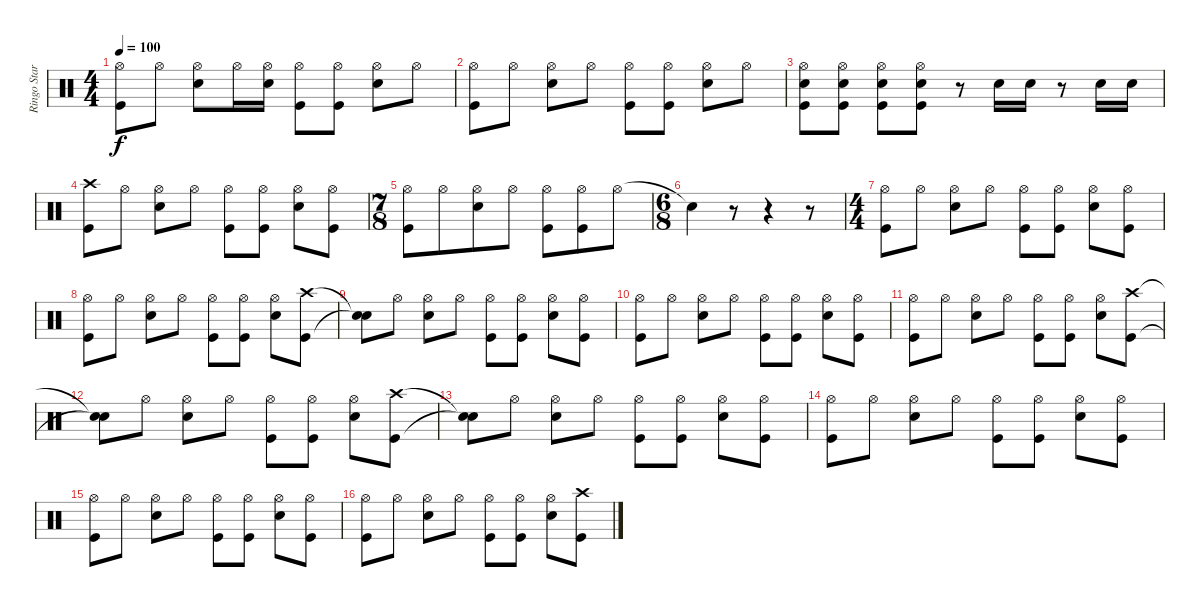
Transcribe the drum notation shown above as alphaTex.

\track ("Ringo Starr" "Ringo Star") {instrument percussion}
\staff {score}
\articulation defaults
\ts (4 4)
\tempo 100
\clef neutral
\ks c
("Hi-Hat (open)" "Kick (hit)").8{dy f} "Hi-Hat (open)".8 ("Hi-Hat (open)" "Snare (hit) 2").8 "Hi-Hat (open)".16 ("Hi-Hat (open)" "Snare (hit) 2").16 ("Hi-Hat (open)" "Kick (hit)").8 ("Hi-Hat (open)" "Kick (hit)").8 ("Hi-Hat (open)" "Snare (hit) 2").8 "Hi-Hat (open)".8 |
("Hi-Hat (open)" "Kick (hit)").8 "Hi-Hat (open)".8 ("Hi-Hat (open)" "Snare (hit) 2").8 "Hi-Hat (open)".8 ("Hi-Hat (open)" "Kick (hit)").8 ("Hi-Hat (open)" "Kick (hit)").8 ("Hi-Hat (open)" "Snare (hit) 2").8 "Hi-Hat (open)".8 |
("Hi-Hat (open)" "Snare (hit) 2" "Kick (hit)").8 ("Hi-Hat (open)" "Snare (hit) 2" "Kick (hit)").8 ("Hi-Hat (open)" "Snare (hit) 2" "Kick (hit)").8 ("Hi-Hat (open)" "Snare (hit) 2" "Kick (hit)").8 r.8 "Snare (hit) 2".16 "Snare (hit) 2".16 r.8 "Snare (hit) 2".16 "Snare (hit) 2".16 |
("Crash high (hit)" "Kick (hit)").8 "Hi-Hat (open)".8 ("Hi-Hat (open)" "Snare (hit) 2").8 "Hi-Hat (open)".8 ("Hi-Hat (open)" "Kick (hit)").8 ("Hi-Hat (open)" "Kick (hit)").8 ("Hi-Hat (open)" "Snare (hit) 2").8 ("Hi-Hat (open)" "Kick (hit)").8 |
\ts (7 8)
("Hi-Hat (open)" "Kick (hit)").8 "Hi-Hat (open)".8 ("Hi-Hat (open)" "Snare (hit) 2").8 "Hi-Hat (open)".8 ("Hi-Hat (open)" "Kick (hit)").8 ("Hi-Hat (open)" "Kick (hit)").8 "Hi-Hat (open)".8 |
\ts (6 8)
"Snare (hit)"{t}.4 r.8 r.4 r.8 |
\ts (4 4)
("Hi-Hat (open)" "Kick (hit)").8 "Hi-Hat (open)".8 ("Hi-Hat (open)" "Snare (hit) 2").8 "Hi-Hat (open)".8 ("Hi-Hat (open)" "Kick (hit)").8 ("Hi-Hat (open)" "Kick (hit)").8 ("Hi-Hat (open)" "Snare (hit) 2").8 ("Hi-Hat (open)" "Kick (hit)").8 |
("Hi-Hat (open)" "Kick (hit)").8 "Hi-Hat (open)".8 ("Hi-Hat (open)" "Snare (hit) 2").8 "Hi-Hat (open)".8 ("Hi-Hat (open)" "Kick (hit)").8 ("Hi-Hat (open)" "Kick (hit)").8 ("Hi-Hat (open)" "Snare (hit) 2").8 ("Crash high (hit)" "Kick (hit)").8 |
("Snare (hit)"{t} "Snare (hit)"{t}).8 "Hi-Hat (open)".8 ("Hi-Hat (open)" "Snare (hit) 2").8 "Hi-Hat (open)".8 ("Hi-Hat (open)" "Kick (hit)").8 ("Hi-Hat (open)" "Kick (hit)").8 ("Hi-Hat (open)" "Snare (hit) 2").8 ("Hi-Hat (open)" "Kick (hit)").8 |
("Hi-Hat (open)" "Kick (hit)").8 "Hi-Hat (open)".8 ("Hi-Hat (open)" "Snare (hit) 2").8 "Hi-Hat (open)".8 ("Hi-Hat (open)" "Kick (hit)").8 ("Hi-Hat (open)" "Kick (hit)").8 ("Hi-Hat (open)" "Snare (hit) 2").8 ("Hi-Hat (open)" "Kick (hit)").8 |
("Hi-Hat (open)" "Kick (hit)").8 "Hi-Hat (open)".8 ("Hi-Hat (open)" "Snare (hit) 2").8 "Hi-Hat (open)".8 ("Hi-Hat (open)" "Kick (hit)").8 ("Hi-Hat (open)" "Kick (hit)").8 ("Hi-Hat (open)" "Snare (hit) 2").8 ("Crash high (hit)" "Kick (hit)").8 |
("Snare (hit)"{t} "Snare (hit)"{t}).8 "Hi-Hat (open)".8 ("Hi-Hat (open)" "Snare (hit) 2").8 "Hi-Hat (open)".8 ("Hi-Hat (open)" "Kick (hit)").8 ("Hi-Hat (open)" "Kick (hit)").8 ("Hi-Hat (open)" "Snare (hit) 2").8 ("Crash high (hit)" "Kick (hit)").8 |
("Snare (hit)"{t} "Snare (hit)"{t}).8 "Hi-Hat (open)".8 ("Hi-Hat (open)" "Snare (hit) 2").8 "Hi-Hat (open)".8 ("Hi-Hat (open)" "Kick (hit)").8 ("Hi-Hat (open)" "Kick (hit)").8 ("Hi-Hat (open)" "Snare (hit) 2").8 ("Hi-Hat (open)" "Kick (hit)").8 |
("Hi-Hat (open)" "Kick (hit)").8 "Hi-Hat (open)".8 ("Hi-Hat (open)" "Snare (hit) 2").8 "Hi-Hat (open)".8 ("Hi-Hat (open)" "Kick (hit)").8 ("Hi-Hat (open)" "Kick (hit)").8 ("Hi-Hat (open)" "Snare (hit) 2").8 ("Hi-Hat (open)" "Kick (hit)").8 |
("Hi-Hat (open)" "Kick (hit)").8 "Hi-Hat (open)".8 ("Hi-Hat (open)" "Snare (hit) 2").8 "Hi-Hat (open)".8 ("Hi-Hat (open)" "Kick (hit)").8 ("Hi-Hat (open)" "Kick (hit)").8 ("Hi-Hat (open)" "Snare (hit) 2").8 ("Hi-Hat (open)" "Kick (hit)").8 |
("Hi-Hat (open)" "Kick (hit)").8 "Hi-Hat (open)".8 ("Hi-Hat (open)" "Snare (hit) 2").8 "Hi-Hat (open)".8 ("Hi-Hat (open)" "Kick (hit)").8 ("Hi-Hat (open)" "Kick (hit)").8 ("Hi-Hat (open)" "Snare (hit) 2").8 ("Crash high (hit)" "Kick (hit)").8
